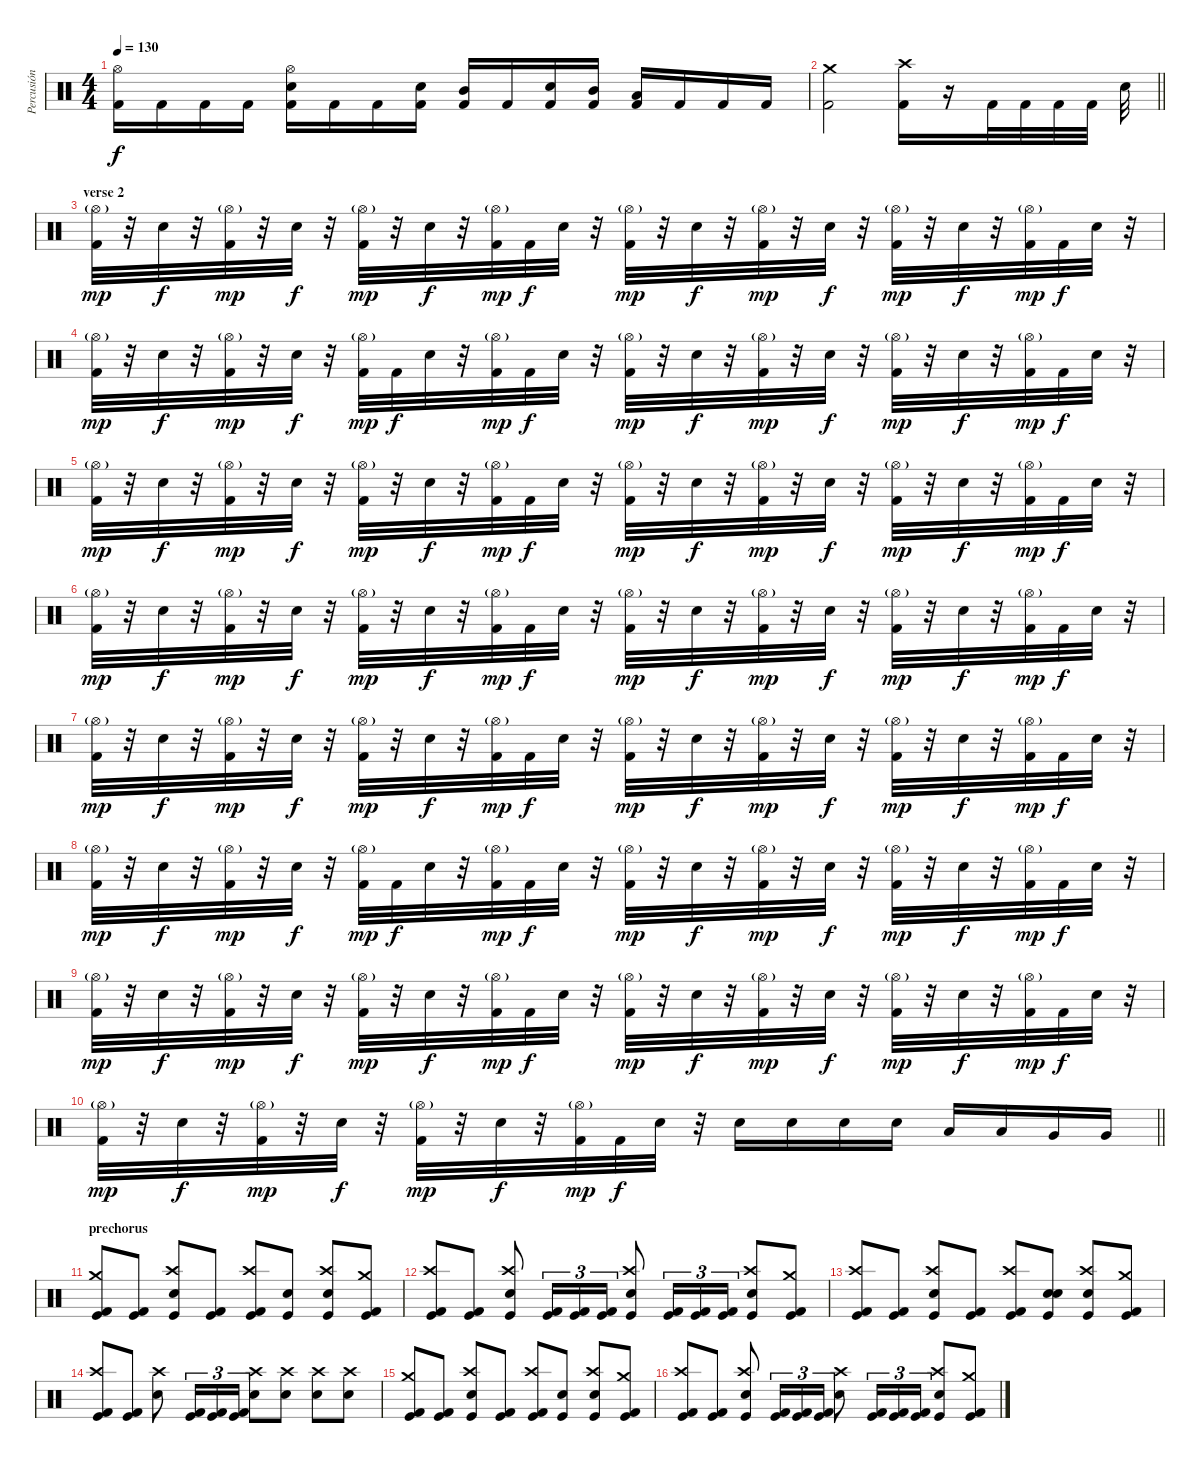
\track ("Percusión" "Percusión") {instrument percussion}
\staff {score}
\articulation defaults
\ts (4 4)
\tempo 130
\clef neutral
\ks c
("Hi-Hat (open)" "Kick (hit) 2").16{dy f} "Kick (hit) 2".16 "Kick (hit) 2".16 "Kick (hit) 2".16 ("Electric Snare (hit)" "Hi-Hat (open)" "Kick (hit) 2").16 "Kick (hit) 2".16 "Kick (hit) 2".16 ("Electric Snare (hit)" "Kick (hit) 2").16 ("Mid Tom (hit)" "Kick (hit) 2").16 "Kick (hit) 2".16 ("Electric Snare (hit)" "Kick (hit) 2").16 ("Mid Tom (hit)" "Kick (hit) 2").16 ("Low Tom (hit)" "Kick (hit) 2").16 "Kick (hit) 2".16 "Kick (hit) 2".16 "Kick (hit) 2".16 |
\barLineRight lightlight
("Crash medium (hit)" "Kick (hit) 2").2 ("Crash high (hit)" "Kick (hit) 2").16 r.16 "Kick (hit) 2".32 "Kick (hit) 2".32 "Kick (hit) 2".32 "Kick (hit) 2".32 "Electric Snare (hit)".32 |
\section ("" "verse 2 ")
("Hi-Hat (open)"{g} "Kick (hit) 2").32{dy mp} r.32 "Electric Snare (hit)".32{dy f} r.32 ("Hi-Hat (open)"{g} "Kick (hit) 2").32{dy mp} r.32 "Electric Snare (hit)".32{dy f} r.32 ("Hi-Hat (open)"{g} "Kick (hit) 2").32{dy mp} r.32 "Electric Snare (hit)".32{dy f} r.32 ("Hi-Hat (open)"{g} "Kick (hit) 2").32{dy mp} "Kick (hit) 2".32{dy f} "Electric Snare (hit)".32 r.32 ("Hi-Hat (open)"{g} "Kick (hit) 2").32{dy mp} r.32 "Electric Snare (hit)".32{dy f} r.32 ("Hi-Hat (open)"{g} "Kick (hit) 2").32{dy mp} r.32 "Electric Snare (hit)".32{dy f} r.32 ("Hi-Hat (open)"{g} "Kick (hit) 2").32{dy mp} r.32 "Electric Snare (hit)".32{dy f} r.32 ("Hi-Hat (open)"{g} "Kick (hit) 2").32{dy mp} "Kick (hit) 2".32{dy f} "Electric Snare (hit)".32 r.32 |
("Hi-Hat (open)"{g} "Kick (hit) 2").32{dy mp} r.32 "Electric Snare (hit)".32{dy f} r.32 ("Hi-Hat (open)"{g} "Kick (hit) 2").32{dy mp} r.32 "Electric Snare (hit)".32{dy f} r.32 ("Hi-Hat (open)"{g} "Kick (hit) 2").32{dy mp} "Kick (hit) 2".32{dy f} "Electric Snare (hit)".32 r.32 ("Hi-Hat (open)"{g} "Kick (hit) 2").32{dy mp} "Kick (hit) 2".32{dy f} "Electric Snare (hit)".32 r.32 ("Hi-Hat (open)"{g} "Kick (hit) 2").32{dy mp} r.32 "Electric Snare (hit)".32{dy f} r.32 ("Hi-Hat (open)"{g} "Kick (hit) 2").32{dy mp} r.32 "Electric Snare (hit)".32{dy f} r.32 ("Hi-Hat (open)"{g} "Kick (hit) 2").32{dy mp} r.32 "Electric Snare (hit)".32{dy f} r.32 ("Hi-Hat (open)"{g} "Kick (hit) 2").32{dy mp} "Kick (hit) 2".32{dy f} "Electric Snare (hit)".32 r.32 |
("Hi-Hat (open)"{g} "Kick (hit) 2").32{dy mp} r.32 "Electric Snare (hit)".32{dy f} r.32 ("Hi-Hat (open)"{g} "Kick (hit) 2").32{dy mp} r.32 "Electric Snare (hit)".32{dy f} r.32 ("Hi-Hat (open)"{g} "Kick (hit) 2").32{dy mp} r.32 "Electric Snare (hit)".32{dy f} r.32 ("Hi-Hat (open)"{g} "Kick (hit) 2").32{dy mp} "Kick (hit) 2".32{dy f} "Electric Snare (hit)".32 r.32 ("Hi-Hat (open)"{g} "Kick (hit) 2").32{dy mp} r.32 "Electric Snare (hit)".32{dy f} r.32 ("Hi-Hat (open)"{g} "Kick (hit) 2").32{dy mp} r.32 "Electric Snare (hit)".32{dy f} r.32 ("Hi-Hat (open)"{g} "Kick (hit) 2").32{dy mp} r.32 "Electric Snare (hit)".32{dy f} r.32 ("Hi-Hat (open)"{g} "Kick (hit) 2").32{dy mp} "Kick (hit) 2".32{dy f} "Electric Snare (hit)".32 r.32 |
("Hi-Hat (open)"{g} "Kick (hit) 2").32{dy mp} r.32 "Electric Snare (hit)".32{dy f} r.32 ("Hi-Hat (open)"{g} "Kick (hit) 2").32{dy mp} r.32 "Electric Snare (hit)".32{dy f} r.32 ("Hi-Hat (open)"{g} "Kick (hit) 2").32{dy mp} r.32 "Electric Snare (hit)".32{dy f} r.32 ("Hi-Hat (open)"{g} "Kick (hit) 2").32{dy mp} "Kick (hit) 2".32{dy f} "Electric Snare (hit)".32 r.32 ("Hi-Hat (open)"{g} "Kick (hit) 2").32{dy mp} r.32 "Electric Snare (hit)".32{dy f} r.32 ("Hi-Hat (open)"{g} "Kick (hit) 2").32{dy mp} r.32 "Electric Snare (hit)".32{dy f} r.32 ("Hi-Hat (open)"{g} "Kick (hit) 2").32{dy mp} r.32 "Electric Snare (hit)".32{dy f} r.32 ("Hi-Hat (open)"{g} "Kick (hit) 2").32{dy mp} "Kick (hit) 2".32{dy f} "Electric Snare (hit)".32 r.32 |
("Hi-Hat (open)"{g} "Kick (hit) 2").32{dy mp} r.32 "Electric Snare (hit)".32{dy f} r.32 ("Hi-Hat (open)"{g} "Kick (hit) 2").32{dy mp} r.32 "Electric Snare (hit)".32{dy f} r.32 ("Hi-Hat (open)"{g} "Kick (hit) 2").32{dy mp} r.32 "Electric Snare (hit)".32{dy f} r.32 ("Hi-Hat (open)"{g} "Kick (hit) 2").32{dy mp} "Kick (hit) 2".32{dy f} "Electric Snare (hit)".32 r.32 ("Hi-Hat (open)"{g} "Kick (hit) 2").32{dy mp} r.32 "Electric Snare (hit)".32{dy f} r.32 ("Hi-Hat (open)"{g} "Kick (hit) 2").32{dy mp} r.32 "Electric Snare (hit)".32{dy f} r.32 ("Hi-Hat (open)"{g} "Kick (hit) 2").32{dy mp} r.32 "Electric Snare (hit)".32{dy f} r.32 ("Hi-Hat (open)"{g} "Kick (hit) 2").32{dy mp} "Kick (hit) 2".32{dy f} "Electric Snare (hit)".32 r.32 |
("Hi-Hat (open)"{g} "Kick (hit) 2").32{dy mp} r.32 "Electric Snare (hit)".32{dy f} r.32 ("Hi-Hat (open)"{g} "Kick (hit) 2").32{dy mp} r.32 "Electric Snare (hit)".32{dy f} r.32 ("Hi-Hat (open)"{g} "Kick (hit) 2").32{dy mp} "Kick (hit) 2".32{dy f} "Electric Snare (hit)".32 r.32 ("Hi-Hat (open)"{g} "Kick (hit) 2").32{dy mp} "Kick (hit) 2".32{dy f} "Electric Snare (hit)".32 r.32 ("Hi-Hat (open)"{g} "Kick (hit) 2").32{dy mp} r.32 "Electric Snare (hit)".32{dy f} r.32 ("Hi-Hat (open)"{g} "Kick (hit) 2").32{dy mp} r.32 "Electric Snare (hit)".32{dy f} r.32 ("Hi-Hat (open)"{g} "Kick (hit) 2").32{dy mp} r.32 "Electric Snare (hit)".32{dy f} r.32 ("Hi-Hat (open)"{g} "Kick (hit) 2").32{dy mp} "Kick (hit) 2".32{dy f} "Electric Snare (hit)".32 r.32 |
("Hi-Hat (open)"{g} "Kick (hit) 2").32{dy mp} r.32 "Electric Snare (hit)".32{dy f} r.32 ("Hi-Hat (open)"{g} "Kick (hit) 2").32{dy mp} r.32 "Electric Snare (hit)".32{dy f} r.32 ("Hi-Hat (open)"{g} "Kick (hit) 2").32{dy mp} r.32 "Electric Snare (hit)".32{dy f} r.32 ("Hi-Hat (open)"{g} "Kick (hit) 2").32{dy mp} "Kick (hit) 2".32{dy f} "Electric Snare (hit)".32 r.32 ("Hi-Hat (open)"{g} "Kick (hit) 2").32{dy mp} r.32 "Electric Snare (hit)".32{dy f} r.32 ("Hi-Hat (open)"{g} "Kick (hit) 2").32{dy mp} r.32 "Electric Snare (hit)".32{dy f} r.32 ("Hi-Hat (open)"{g} "Kick (hit) 2").32{dy mp} r.32 "Electric Snare (hit)".32{dy f} r.32 ("Hi-Hat (open)"{g} "Kick (hit) 2").32{dy mp} "Kick (hit) 2".32{dy f} "Electric Snare (hit)".32 r.32 |
\barLineRight lightlight
("Hi-Hat (open)"{g} "Kick (hit) 2").32{dy mp} r.32 "Electric Snare (hit)".32{dy f} r.32 ("Hi-Hat (open)"{g} "Kick (hit) 2").32{dy mp} r.32 "Electric Snare (hit)".32{dy f} r.32 ("Hi-Hat (open)"{g} "Kick (hit) 2").32{dy mp} r.32 "Electric Snare (hit)".32{dy f} r.32 ("Hi-Hat (open)"{g} "Kick (hit) 2").32{dy mp} "Kick (hit) 2".32{dy f} "Electric Snare (hit)".32 r.32 "Electric Snare (hit)".16 "Electric Snare (hit)".16 "Electric Snare (hit)".16 "Electric Snare (hit)".16 "Low Tom (hit)".16 "Low Tom (hit)".16 "Very Low Tom (hit)".16 "Very Low Tom (hit)".16 |
\section ("" "prechorus")
("Crash medium (hit)" "Kick (hit) 2" "Kick (hit)").8 ("Kick (hit) 2" "Kick (hit)").8 ("Crash high (hit)" "Electric Snare (hit)" "Kick (hit)").8 ("Kick (hit) 2" "Kick (hit)").8 ("Crash high (hit)" "Kick (hit) 2" "Kick (hit)").8 ("Electric Snare (hit)" "Kick (hit)").8 ("Crash high (hit)" "Electric Snare (hit)" "Kick (hit)").8 ("Crash medium (hit)" "Kick (hit)" "Kick (hit) 2").8 |
("Crash high (hit)" "Kick (hit)" "Kick (hit) 2").8 ("Kick (hit)" "Kick (hit) 2").8 ("Crash high (hit)" "Electric Snare (hit)" "Kick (hit)").8 ("Kick (hit)" "Kick (hit) 2").16{tu (3 2)} ("Kick (hit)" "Kick (hit) 2").16{tu (3 2)} ("Kick (hit)" "Kick (hit) 2").16{tu (3 2)} ("Crash high (hit)" "Electric Snare (hit)" "Kick (hit)").8 ("Kick (hit)" "Kick (hit) 2").16{tu (3 2)} ("Kick (hit)" "Kick (hit) 2").16{tu (3 2)} ("Kick (hit)" "Kick (hit) 2").16{tu (3 2)} ("Crash high (hit)" "Kick (hit)" "Electric Snare (hit)").8 ("Crash medium (hit)" "Kick (hit)" "Kick (hit) 2").8 |
("Crash high (hit)" "Kick (hit) 2" "Kick (hit)").8 ("Kick (hit) 2" "Kick (hit)").8 ("Crash high (hit)" "Electric Snare (hit)" "Kick (hit)").8 ("Kick (hit) 2" "Kick (hit)").8 ("Crash high (hit)" "Kick (hit) 2" "Kick (hit)").8 ("Snare (hit)" "Electric Snare (hit)" "Kick (hit)").8 ("Crash high (hit)" "Electric Snare (hit)" "Kick (hit)").8 ("Crash medium (hit)" "Kick (hit)" "Kick (hit) 2").8 |
("Crash high (hit)" "Kick (hit)" "Kick (hit) 2").8 ("Kick (hit)" "Kick (hit) 2").8 ("Crash high (hit)" "Electric Snare (hit)").8 ("Kick (hit)" "Kick (hit) 2").16{tu (3 2)} ("Kick (hit)" "Kick (hit) 2").16{tu (3 2)} ("Kick (hit)" "Kick (hit) 2").16{tu (3 2)} ("Crash high (hit)" "Electric Snare (hit)").8 ("Crash high (hit)" "Electric Snare (hit)").8 ("Crash high (hit)" "Electric Snare (hit)").8 ("Crash high (hit)" "Electric Snare (hit)").8 |
("Crash medium (hit)" "Kick (hit)" "Kick (hit) 2").8 ("Kick (hit)" "Kick (hit) 2").8 ("Crash high (hit)" "Kick (hit)" "Electric Snare (hit)").8 ("Kick (hit)" "Kick (hit) 2").8 ("Crash high (hit)" "Kick (hit)" "Kick (hit) 2").8 ("Kick (hit)" "Electric Snare (hit)").8 ("Crash high (hit)" "Kick (hit)" "Electric Snare (hit)").8 ("Crash medium (hit)" "Kick (hit)" "Kick (hit) 2").8 |
("Crash high (hit)" "Kick (hit)" "Kick (hit) 2").8 ("Kick (hit)" "Kick (hit) 2").8 ("Crash high (hit)" "Electric Snare (hit)" "Kick (hit)").8 ("Kick (hit)" "Kick (hit) 2").16{tu (3 2)} ("Kick (hit)" "Kick (hit) 2").16{tu (3 2)} ("Kick (hit)" "Kick (hit) 2").16{tu (3 2)} ("Crash high (hit)" "Electric Snare (hit)").8 ("Kick (hit)" "Kick (hit) 2").16{tu (3 2)} ("Kick (hit)" "Kick (hit) 2").16{tu (3 2)} ("Kick (hit)" "Kick (hit) 2").16{tu (3 2)} ("Crash high (hit)" "Kick (hit)" "Electric Snare (hit)").8 ("Crash medium (hit)" "Kick (hit)" "Kick (hit) 2").8
